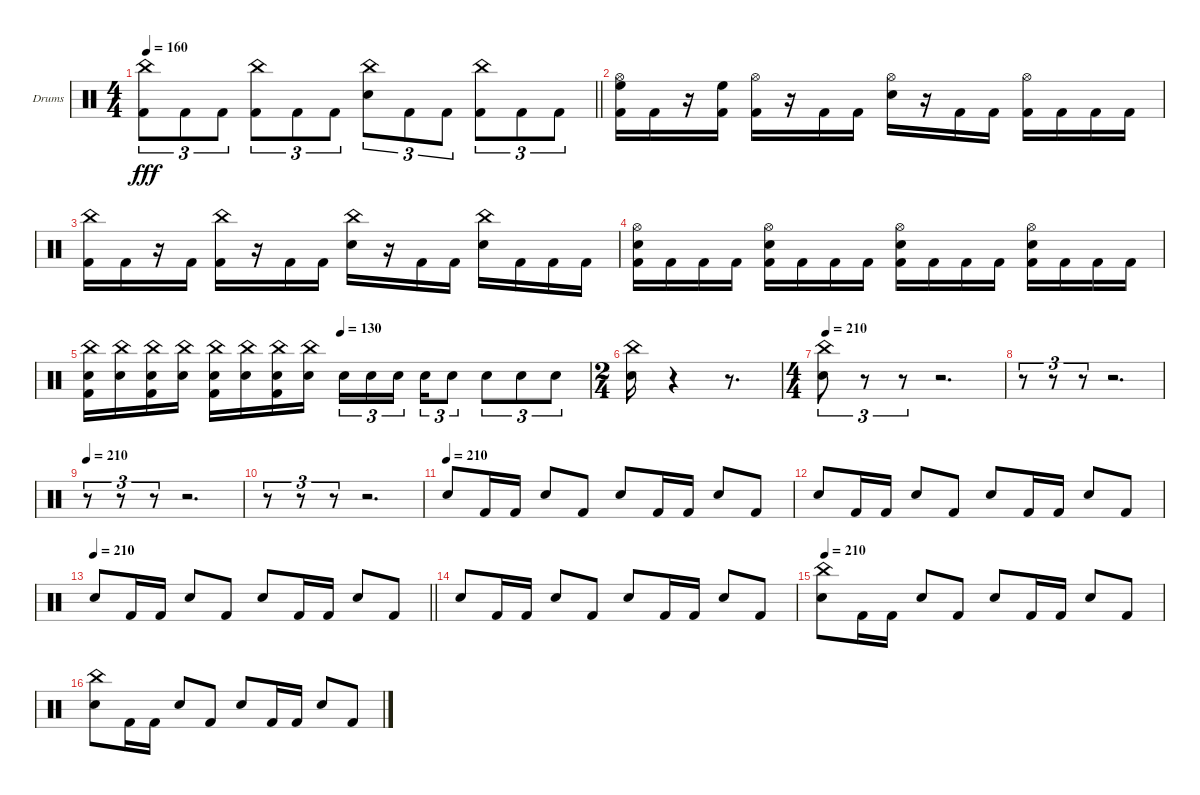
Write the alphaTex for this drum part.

\bracketExtendMode groupsimilarinstruments
\firstSystemTrackNameOrientation horizontal
\otherSystemsTrackNameOrientation horizontal
\track ("Gigante" "Drums") {instrument percussion}
\staff {score}
\articulation defaults
\ts (4 4)
\tempo 160
\clef neutral
\barLineRight lightlight
\ks c
("China (hit)" "Kick (hit) 2").8{tu (3 2) dy fff} "Kick (hit) 2".8{tu (3 2)} "Kick (hit) 2".8{tu (3 2)} ("China (hit)" "Kick (hit) 2").8{tu (3 2)} "Kick (hit) 2".8{tu (3 2)} "Kick (hit) 2".8{tu (3 2)} ("China (hit)" "Snare (hit) 2").8{tu (3 2)} "Kick (hit) 2".8{tu (3 2)} "Kick (hit) 2".8{tu (3 2)} ("China (hit)" "Kick (hit) 2").8{tu (3 2)} "Kick (hit) 2".8{tu (3 2)} "Kick (hit) 2".8{tu (3 2)} |
("Hi-Hat (open)" "High Floor Tom (hit)" "Kick (hit) 2").16 "Kick (hit) 2".16 r.16 ("High Floor Tom (hit)" "Kick (hit) 2").16 ("Hi-Hat (open)" "Kick (hit) 2").16 r.16 "Kick (hit) 2".16 "Kick (hit) 2".16 ("Hi-Hat (open)" "Snare (hit) 2").16 r.16 "Kick (hit) 2".16 "Kick (hit) 2".16 ("Hi-Hat (open)" "Kick (hit) 2").16 "Kick (hit) 2".16 "Kick (hit) 2".16 "Kick (hit) 2".16 |
("China (hit)" "Kick (hit) 2").16 "Kick (hit) 2".16 r.16 "Kick (hit) 2".16 ("China (hit)" "Kick (hit) 2").16 r.16 "Kick (hit) 2".16 "Kick (hit) 2".16 ("China (hit)" "Snare (hit) 2").16 r.16 "Kick (hit) 2".16 "Kick (hit) 2".16 ("China (hit)" "Snare (hit) 2").16 "Kick (hit) 2".16 "Kick (hit) 2".16 "Kick (hit) 2".16 |
("Hi-Hat (open)" "Snare (hit) 2" "Kick (hit) 2").16 "Kick (hit) 2".16 "Kick (hit) 2".16 "Kick (hit) 2".16 ("Hi-Hat (open)" "Snare (hit) 2" "Kick (hit) 2").16 "Kick (hit) 2".16 "Kick (hit) 2".16 "Kick (hit) 2".16 ("Hi-Hat (open)" "Snare (hit) 2" "Kick (hit) 2").16 "Kick (hit) 2".16 "Kick (hit) 2".16 "Kick (hit) 2".16 ("Hi-Hat (open)" "Snare (hit) 2" "Kick (hit) 2").16 "Kick (hit) 2".16 "Kick (hit) 2".16 "Kick (hit) 2".16 |
\tempo (130 0.5)
("China (hit)" "Snare (hit) 2" "Kick (hit) 2").16 ("China (hit)" "Snare (hit) 2").16 ("China (hit)" "Snare (hit) 2" "Kick (hit) 2").16 ("China (hit)" "Snare (hit) 2").16 ("China (hit)" "Snare (hit) 2" "Kick (hit) 2").16 ("China (hit)" "Snare (hit) 2").16 ("China (hit)" "Snare (hit) 2" "Kick (hit) 2").16 ("China (hit)" "Snare (hit) 2").16 "Snare (hit) 2".16{tu (3 2)} "Snare (hit) 2".16{tu (3 2)} "Snare (hit) 2".16{tu (3 2)} "Snare (hit) 2".16{tu (3 2)} "Snare (hit) 2".8{tu (3 2)} "Snare (hit) 2".8{tu (3 2)} "Snare (hit) 2".8{tu (3 2)} "Snare (hit) 2".8{tu (3 2)} |
\ts (2 4)
\beaming (8 2 2)
("China (hit)" "Snare (hit) 2").16 r.4 r.8{d} |
\ts (4 4)
\beaming (8 2 2 2 2)
\tempo 210
("China (hit)" "Snare (hit) 2").8{tu (3 2)} r.8{tu (3 2)} r.8{tu (3 2)} r.2{d} |
r.8{tu (3 2)} r.8{tu (3 2)} r.8{tu (3 2)} r.2{d} |
\tempo 210
r.8{tu (3 2)} r.8{tu (3 2)} r.8{tu (3 2)} r.2{d} |
r.8{tu (3 2)} r.8{tu (3 2)} r.8{tu (3 2)} r.2{d} |
\tempo (210)
"Snare (hit) 2".8 "Kick (hit) 2".16 "Kick (hit) 2".16 "Snare (hit) 2".8 "Kick (hit) 2".8 "Snare (hit) 2".8 "Kick (hit) 2".16 "Kick (hit) 2".16 "Snare (hit) 2".8 "Kick (hit) 2".8 |
"Snare (hit) 2".8 "Kick (hit) 2".16 "Kick (hit) 2".16 "Snare (hit) 2".8 "Kick (hit) 2".8 "Snare (hit) 2".8 "Kick (hit) 2".16 "Kick (hit) 2".16 "Snare (hit) 2".8 "Kick (hit) 2".8 |
\tempo 210
\barLineRight lightlight "Snare (hit) 2".8 "Kick (hit) 2".16 "Kick (hit) 2".16 "Snare (hit) 2".8 "Kick (hit) 2".8 "Snare (hit) 2".8 "Kick (hit) 2".16 "Kick (hit) 2".16 "Snare (hit) 2".8 "Kick (hit) 2".8
|
"Snare (hit) 2".8 "Kick (hit) 2".16 "Kick (hit) 2".16 "Snare (hit) 2".8 "Kick (hit) 2".8 "Snare (hit) 2".8 "Kick (hit) 2".16 "Kick (hit) 2".16 "Snare (hit) 2".8 "Kick (hit) 2".8 |
\tempo 210
("China (hit)" "Snare (hit) 2").8 "Kick (hit) 2".16 "Kick (hit) 2".16 "Snare (hit) 2".8 "Kick (hit) 2".8 "Snare (hit) 2".8 "Kick (hit) 2".16 "Kick (hit) 2".16 "Snare (hit) 2".8 "Kick (hit) 2".8 |
("China (hit)" "Snare (hit) 2").8 "Kick (hit) 2".16 "Kick (hit) 2".16 "Snare (hit) 2".8 "Kick (hit) 2".8 "Snare (hit) 2".8 "Kick (hit) 2".16 "Kick (hit) 2".16 "Snare (hit) 2".8 "Kick (hit) 2".8
